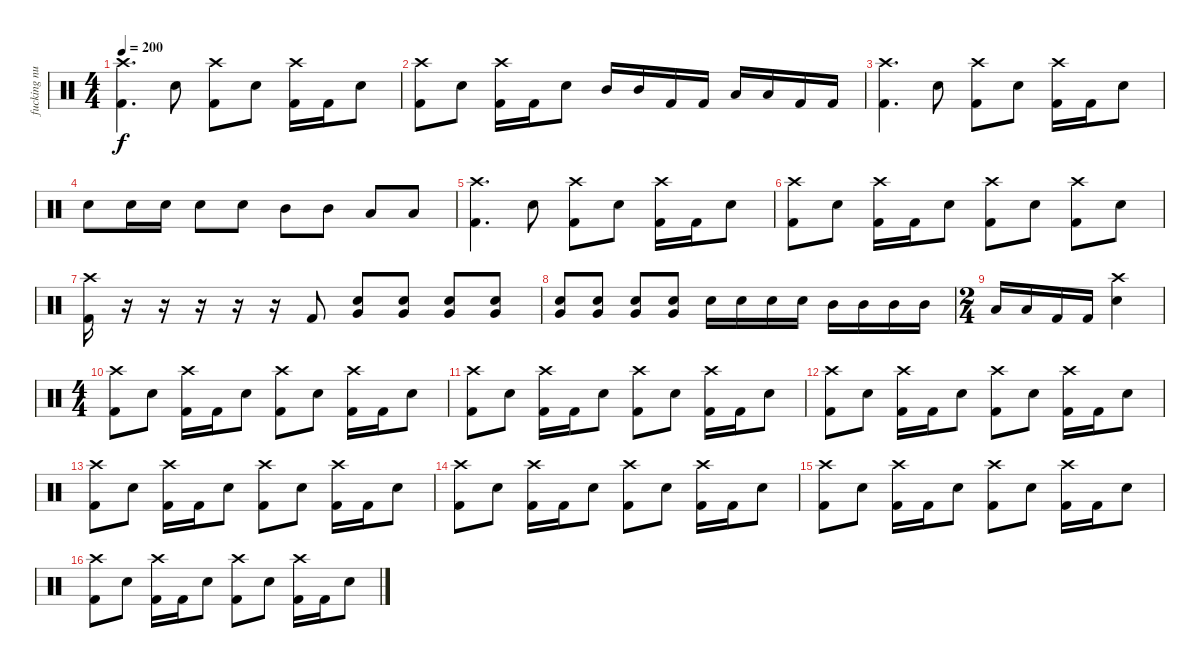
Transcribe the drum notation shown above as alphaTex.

\track ("fucking nuts." "fucking nu") {instrument percussion}
\staff {score}
\articulation defaults
\ts (4 4)
\tempo 200
\clef neutral
\ks c
("Crash high (hit)" "Kick (hit) 2").4{d dy f} "Electric Snare (hit)".8 ("Crash high (hit)" "Kick (hit) 2").8 "Electric Snare (hit)".8 ("Crash high (hit)" "Kick (hit) 2").16 "Kick (hit) 2".16 "Electric Snare (hit)".8 |
("Crash high (hit)" "Kick (hit) 2").8 "Electric Snare (hit)".8 ("Crash high (hit)" "Kick (hit) 2").16 "Kick (hit) 2".16 "Electric Snare (hit)".8 "Mid Tom (hit)".16 "Mid Tom (hit)".16 "Kick (hit) 2".16 "Kick (hit) 2".16 "Low Tom (hit)".16 "Low Tom (hit)".16 "Kick (hit) 2".16 "Kick (hit) 2".16 |
("Crash high (hit)" "Kick (hit) 2").4{d} "Electric Snare (hit)".8 ("Crash high (hit)" "Kick (hit) 2").8 "Electric Snare (hit)".8 ("Crash high (hit)" "Kick (hit) 2").16 "Kick (hit) 2".16 "Electric Snare (hit)".8 |
"Electric Snare (hit)".8 "Electric Snare (hit)".16 "Electric Snare (hit)".16 "Electric Snare (hit)".8 "Electric Snare (hit)".8 "Mid Tom (hit)".8 "Mid Tom (hit)".8 "Low Tom (hit)".8 "Low Tom (hit)".8 |
("Crash high (hit)" "Kick (hit) 2").4{d} "Electric Snare (hit)".8 ("Crash high (hit)" "Kick (hit) 2").8 "Electric Snare (hit)".8 ("Crash high (hit)" "Kick (hit) 2").16 "Kick (hit) 2".16 "Electric Snare (hit)".8 |
("Crash high (hit)" "Kick (hit) 2").8 "Electric Snare (hit)".8 ("Crash high (hit)" "Kick (hit) 2").16 "Kick (hit) 2".16 "Electric Snare (hit)".8 ("Crash high (hit)" "Kick (hit) 2").8 "Electric Snare (hit)".8 ("Crash high (hit)" "Kick (hit) 2").8 "Electric Snare (hit)".8 |
("Crash high (hit)" "Kick (hit) 2").16 r.16 r.16 r.16 r.16 r.16 "Kick (hit) 2".8 ("Very Low Tom (hit)" "Electric Snare (hit)").8 ("Very Low Tom (hit)" "Electric Snare (hit)").8 ("Very Low Tom (hit)" "Electric Snare (hit)").8 ("Very Low Tom (hit)" "Electric Snare (hit)").8 |
("Very Low Tom (hit)" "Electric Snare (hit)").8 ("Very Low Tom (hit)" "Electric Snare (hit)").8 ("Very Low Tom (hit)" "Electric Snare (hit)").8 ("Very Low Tom (hit)" "Electric Snare (hit)").8 "Electric Snare (hit)".16 "Electric Snare (hit)".16 "Electric Snare (hit)".16 "Electric Snare (hit)".16 "Mid Tom (hit)".16 "Mid Tom (hit)".16 "Mid Tom (hit)".16 "Mid Tom (hit)".16 |
\ts (2 4)
"Low Tom (hit)".16 "Low Tom (hit)".16 "Kick (hit) 2".16 "Kick (hit) 2".16 ("Crash high (hit)" "Electric Snare (hit)").4 |
\ts (4 4)
("Crash high (hit)" "Kick (hit) 2").8 "Electric Snare (hit)".8 ("Crash high (hit)" "Kick (hit) 2").16 "Kick (hit) 2".16 "Electric Snare (hit)".8 ("Crash high (hit)" "Kick (hit) 2").8 "Electric Snare (hit)".8 ("Crash high (hit)" "Kick (hit) 2").16 "Kick (hit) 2".16 "Electric Snare (hit)".8 |
("Crash high (hit)" "Kick (hit) 2").8 "Electric Snare (hit)".8 ("Crash high (hit)" "Kick (hit) 2").16 "Kick (hit) 2".16 "Electric Snare (hit)".8 ("Crash high (hit)" "Kick (hit) 2").8 "Electric Snare (hit)".8 ("Crash high (hit)" "Kick (hit) 2").16 "Kick (hit) 2".16 "Electric Snare (hit)".8 |
("Crash high (hit)" "Kick (hit) 2").8 "Electric Snare (hit)".8 ("Crash high (hit)" "Kick (hit) 2").16 "Kick (hit) 2".16 "Electric Snare (hit)".8 ("Crash high (hit)" "Kick (hit) 2").8 "Electric Snare (hit)".8 ("Crash high (hit)" "Kick (hit) 2").16 "Kick (hit) 2".16 "Electric Snare (hit)".8 |
("Crash high (hit)" "Kick (hit) 2").8 "Electric Snare (hit)".8 ("Crash high (hit)" "Kick (hit) 2").16 "Kick (hit) 2".16 "Electric Snare (hit)".8 ("Crash high (hit)" "Kick (hit) 2").8 "Electric Snare (hit)".8 ("Crash high (hit)" "Kick (hit) 2").16 "Kick (hit) 2".16 "Electric Snare (hit)".8 |
("Crash high (hit)" "Kick (hit) 2").8 "Electric Snare (hit)".8 ("Crash high (hit)" "Kick (hit) 2").16 "Kick (hit) 2".16 "Electric Snare (hit)".8 ("Crash high (hit)" "Kick (hit) 2").8 "Electric Snare (hit)".8 ("Crash high (hit)" "Kick (hit) 2").16 "Kick (hit) 2".16 "Electric Snare (hit)".8 |
("Crash high (hit)" "Kick (hit) 2").8 "Electric Snare (hit)".8 ("Crash high (hit)" "Kick (hit) 2").16 "Kick (hit) 2".16 "Electric Snare (hit)".8 ("Crash high (hit)" "Kick (hit) 2").8 "Electric Snare (hit)".8 ("Crash high (hit)" "Kick (hit) 2").16 "Kick (hit) 2".16 "Electric Snare (hit)".8 |
("Crash high (hit)" "Kick (hit) 2").8 "Electric Snare (hit)".8 ("Crash high (hit)" "Kick (hit) 2").16 "Kick (hit) 2".16 "Electric Snare (hit)".8 ("Crash high (hit)" "Kick (hit) 2").8 "Electric Snare (hit)".8 ("Crash high (hit)" "Kick (hit) 2").16 "Kick (hit) 2".16 "Electric Snare (hit)".8
